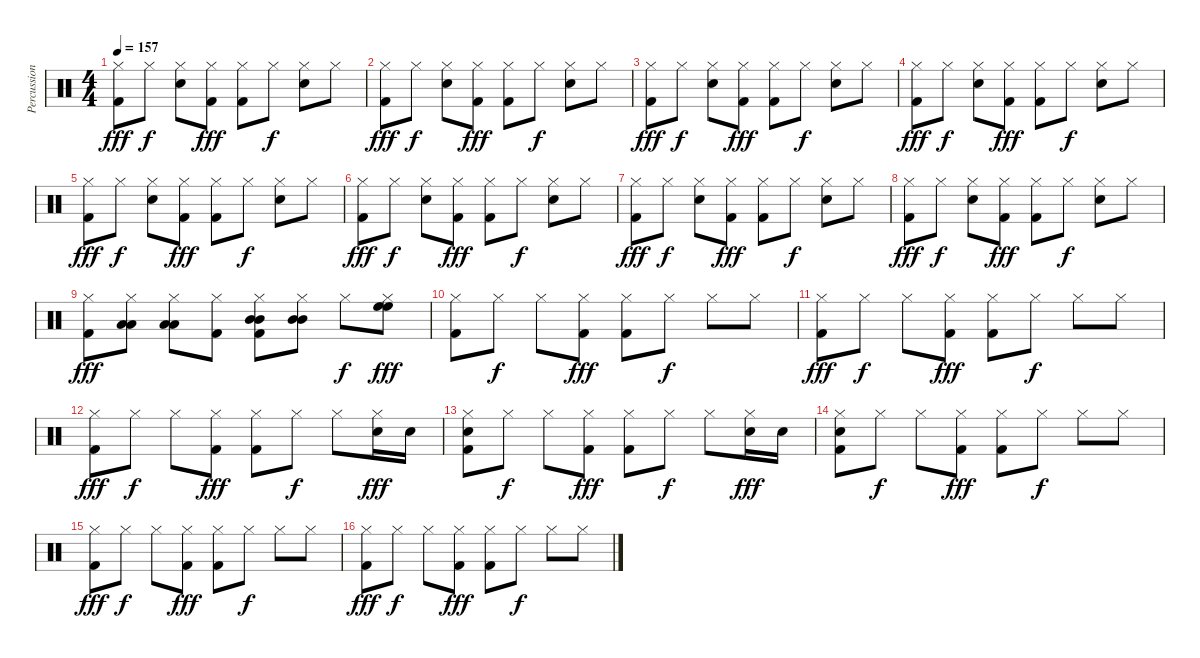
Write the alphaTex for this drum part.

\track ("Percussioni" "Percussion") {instrument percussion}
\staff {score}
\articulation defaults
\ts (4 4)
\tempo 157
\clef neutral
\ks c
("Hi-Hat (closed)" "Kick (hit) 2").8{dy fff} "Hi-Hat (closed)".8{dy f} ("Hi-Hat (closed)" "Snare (hit) 2").8 ("Hi-Hat (closed)" "Kick (hit) 2").8{dy fff} ("Hi-Hat (closed)" "Kick (hit) 2").8 "Hi-Hat (closed)".8{dy f} ("Hi-Hat (closed)" "Snare (hit) 2").8 "Hi-Hat (closed)".8 |
("Hi-Hat (closed)" "Kick (hit) 2").8{dy fff} "Hi-Hat (closed)".8{dy f} ("Hi-Hat (closed)" "Snare (hit) 2").8 ("Hi-Hat (closed)" "Kick (hit) 2").8{dy fff} ("Hi-Hat (closed)" "Kick (hit) 2").8 "Hi-Hat (closed)".8{dy f} ("Hi-Hat (closed)" "Snare (hit) 2").8 "Hi-Hat (closed)".8 |
("Hi-Hat (closed)" "Kick (hit) 2").8{dy fff} "Hi-Hat (closed)".8{dy f} ("Hi-Hat (closed)" "Snare (hit) 2").8 ("Hi-Hat (closed)" "Kick (hit) 2").8{dy fff} ("Hi-Hat (closed)" "Kick (hit) 2").8 "Hi-Hat (closed)".8{dy f} ("Hi-Hat (closed)" "Snare (hit) 2").8 "Hi-Hat (closed)".8 |
("Hi-Hat (closed)" "Kick (hit) 2").8{dy fff} "Hi-Hat (closed)".8{dy f} ("Hi-Hat (closed)" "Snare (hit) 2").8 ("Hi-Hat (closed)" "Kick (hit) 2").8{dy fff} ("Hi-Hat (closed)" "Kick (hit) 2").8 "Hi-Hat (closed)".8{dy f} ("Hi-Hat (closed)" "Snare (hit) 2").8 "Hi-Hat (closed)".8 |
("Hi-Hat (closed)" "Kick (hit) 2").8{dy fff} "Hi-Hat (closed)".8{dy f} ("Hi-Hat (closed)" "Snare (hit) 2").8 ("Hi-Hat (closed)" "Kick (hit) 2").8{dy fff} ("Hi-Hat (closed)" "Kick (hit) 2").8 "Hi-Hat (closed)".8{dy f} ("Hi-Hat (closed)" "Snare (hit) 2").8 "Hi-Hat (closed)".8 |
("Hi-Hat (closed)" "Kick (hit) 2").8{dy fff} "Hi-Hat (closed)".8{dy f} ("Hi-Hat (closed)" "Snare (hit) 2").8 ("Hi-Hat (closed)" "Kick (hit) 2").8{dy fff} ("Hi-Hat (closed)" "Kick (hit) 2").8 "Hi-Hat (closed)".8{dy f} ("Hi-Hat (closed)" "Snare (hit) 2").8 "Hi-Hat (closed)".8 |
("Hi-Hat (closed)" "Kick (hit) 2").8{dy fff} "Hi-Hat (closed)".8{dy f} ("Hi-Hat (closed)" "Snare (hit) 2").8 ("Hi-Hat (closed)" "Kick (hit) 2").8{dy fff} ("Hi-Hat (closed)" "Kick (hit) 2").8 "Hi-Hat (closed)".8{dy f} ("Hi-Hat (closed)" "Snare (hit) 2").8 "Hi-Hat (closed)".8 |
("Hi-Hat (closed)" "Kick (hit) 2").8{dy fff} "Hi-Hat (closed)".8{dy f} ("Hi-Hat (closed)" "Snare (hit) 2").8 ("Hi-Hat (closed)" "Kick (hit) 2").8{dy fff} ("Hi-Hat (closed)" "Kick (hit) 2").8 "Hi-Hat (closed)".8{dy f} ("Hi-Hat (closed)" "Snare (hit) 2").8 "Hi-Hat (closed)".8 |
("Hi-Hat (closed)" "Kick (hit) 2").8{dy fff} ("Low Tom (hit)" "Low Tom (hit)" "Hi-Hat (closed)").8 ("Low Tom (hit)" "Low Tom (hit)" "Hi-Hat (closed)").8 ("Hi-Hat (closed)" "Kick (hit) 2").8 ("Mid Tom (hit)" "Mid Tom (hit)" "Hi-Hat (closed)" "Kick (hit) 2").8 ("Mid Tom (hit)" "Mid Tom (hit)" "Hi-Hat (closed)").8 "Hi-Hat (closed)".8{dy f} ("High Floor Tom (hit)" "High Floor Tom (hit)" "Hi-Hat (closed)").8{dy fff} |
("Hi-Hat (closed)" "Kick (hit) 2").8 "Hi-Hat (closed)".8{dy f} "Hi-Hat (closed)".8 ("Hi-Hat (closed)" "Kick (hit) 2").8{dy fff} ("Hi-Hat (closed)" "Kick (hit) 2").8 "Hi-Hat (closed)".8{dy f} "Hi-Hat (closed)".8 "Hi-Hat (closed)".8 |
("Hi-Hat (closed)" "Kick (hit) 2").8{dy fff} "Hi-Hat (closed)".8{dy f} "Hi-Hat (closed)".8 ("Hi-Hat (closed)" "Kick (hit) 2").8{dy fff} ("Hi-Hat (closed)" "Kick (hit) 2").8 "Hi-Hat (closed)".8{dy f} "Hi-Hat (closed)".8 "Hi-Hat (closed)".8 |
("Hi-Hat (closed)" "Kick (hit) 2").8{dy fff} "Hi-Hat (closed)".8{dy f} "Hi-Hat (closed)".8 ("Hi-Hat (closed)" "Kick (hit) 2").8{dy fff} ("Hi-Hat (closed)" "Kick (hit) 2").8 "Hi-Hat (closed)".8{dy f} "Hi-Hat (closed)".8 ("Hi-Hat (closed)" "Snare (hit) 2").16{dy fff} "Snare (hit) 2".16 |
("Hi-Hat (closed)" "Snare (hit) 2" "Kick (hit) 2").8 "Hi-Hat (closed)".8{dy f} "Hi-Hat (closed)".8 ("Hi-Hat (closed)" "Kick (hit) 2").8{dy fff} ("Hi-Hat (closed)" "Kick (hit) 2").8 "Hi-Hat (closed)".8{dy f} "Hi-Hat (closed)".8 ("Hi-Hat (closed)" "Snare (hit) 2").16{dy fff} "Snare (hit) 2".16 |
("Hi-Hat (closed)" "Snare (hit) 2" "Kick (hit) 2").8 "Hi-Hat (closed)".8{dy f} "Hi-Hat (closed)".8 ("Hi-Hat (closed)" "Kick (hit) 2").8{dy fff} ("Hi-Hat (closed)" "Kick (hit) 2").8 "Hi-Hat (closed)".8{dy f} "Hi-Hat (closed)".8 "Hi-Hat (closed)".8 |
("Hi-Hat (closed)" "Kick (hit) 2").8{dy fff} "Hi-Hat (closed)".8{dy f} "Hi-Hat (closed)".8 ("Hi-Hat (closed)" "Kick (hit) 2").8{dy fff} ("Hi-Hat (closed)" "Kick (hit) 2").8 "Hi-Hat (closed)".8{dy f} "Hi-Hat (closed)".8 "Hi-Hat (closed)".8 |
("Hi-Hat (closed)" "Kick (hit) 2").8{dy fff} "Hi-Hat (closed)".8{dy f} "Hi-Hat (closed)".8 ("Hi-Hat (closed)" "Kick (hit) 2").8{dy fff} ("Hi-Hat (closed)" "Kick (hit) 2").8 "Hi-Hat (closed)".8{dy f} "Hi-Hat (closed)".8 "Hi-Hat (closed)".8
